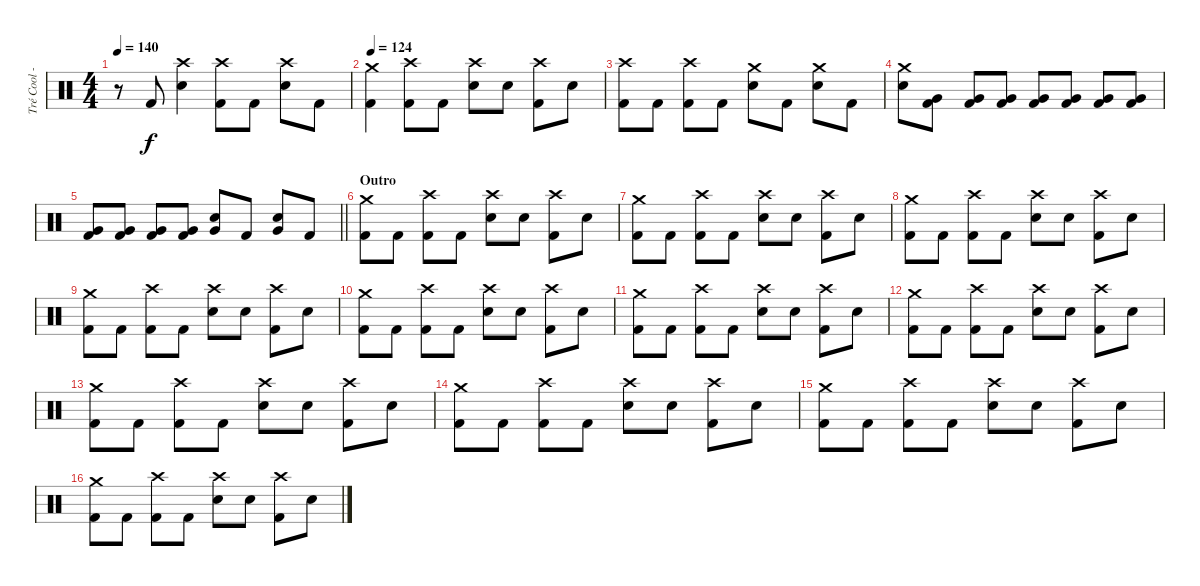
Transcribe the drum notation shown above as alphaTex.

\track ("Tré Cool - Drums" "Tré Cool -") {instrument percussion}
\staff {score}
\articulation defaults
\ts (4 4)
\tempo 140
\clef neutral
\ks c
r.8{dy f} "Kick (hit) 2".8 ("Crash high (hit)" "Electric Snare (hit)").4 ("Crash high (hit)" "Kick (hit) 2").8 "Kick (hit) 2".8 ("Crash high (hit)" "Electric Snare (hit)").8 "Kick (hit) 2".8 |
\tempo 124
("Crash medium (hit)" "Kick (hit) 2").4 ("Crash high (hit)" "Kick (hit) 2").8 "Kick (hit) 2".8 ("Crash high (hit)" "Electric Snare (hit)").8 "Electric Snare (hit)".8 ("Crash high (hit)" "Kick (hit) 2").8 "Electric Snare (hit)".8 |
("Crash high (hit)" "Kick (hit) 2").8 "Kick (hit) 2".8 ("Crash high (hit)" "Kick (hit) 2").8 "Kick (hit) 2".8 ("Crash medium (hit)" "Electric Snare (hit)").8 "Kick (hit) 2".8 ("Crash medium (hit)" "Electric Snare (hit)").8 "Kick (hit) 2".8 |
("Crash medium (hit)" "Electric Snare (hit)").8 ("Very Low Tom (hit)" "Kick (hit) 2").8 ("Very Low Tom (hit)" "Kick (hit) 2").8 ("Very Low Tom (hit)" "Kick (hit) 2").8 ("Very Low Tom (hit)" "Kick (hit) 2").8 ("Very Low Tom (hit)" "Kick (hit) 2").8 ("Very Low Tom (hit)" "Kick (hit) 2").8 ("Very Low Tom (hit)" "Kick (hit) 2").8 |
\barLineRight lightlight
("Very Low Tom (hit)" "Kick (hit) 2").8 ("Very Low Tom (hit)" "Kick (hit) 2").8 ("Very Low Tom (hit)" "Kick (hit) 2").8 ("Very Low Tom (hit)" "Kick (hit) 2").8 ("Electric Snare (hit)" "Very Low Tom (hit)").8 "Kick (hit) 2".8 ("Electric Snare (hit)" "Very Low Tom (hit)").8 "Kick (hit) 2".8 |
\section ("" "Outro")
("Crash medium (hit)" "Kick (hit) 2").8 "Kick (hit) 2".8 ("Crash high (hit)" "Kick (hit) 2").8 "Kick (hit) 2".8 ("Crash high (hit)" "Electric Snare (hit)").8 "Electric Snare (hit)".8 ("Crash high (hit)" "Kick (hit) 2").8 "Electric Snare (hit)".8 |
("Crash medium (hit)" "Kick (hit) 2").8 "Kick (hit) 2".8 ("Crash high (hit)" "Kick (hit) 2").8 "Kick (hit) 2".8 ("Crash high (hit)" "Electric Snare (hit)").8 "Electric Snare (hit)".8 ("Crash high (hit)" "Kick (hit) 2").8 "Electric Snare (hit)".8 |
("Crash medium (hit)" "Kick (hit) 2").8 "Kick (hit) 2".8 ("Crash high (hit)" "Kick (hit) 2").8 "Kick (hit) 2".8 ("Crash high (hit)" "Electric Snare (hit)").8 "Electric Snare (hit)".8 ("Crash high (hit)" "Kick (hit) 2").8 "Electric Snare (hit)".8 |
("Crash medium (hit)" "Kick (hit) 2").8 "Kick (hit) 2".8 ("Crash high (hit)" "Kick (hit) 2").8 "Kick (hit) 2".8 ("Crash high (hit)" "Electric Snare (hit)").8 "Electric Snare (hit)".8 ("Crash high (hit)" "Kick (hit) 2").8 "Electric Snare (hit)".8 |
("Crash medium (hit)" "Kick (hit) 2").8 "Kick (hit) 2".8 ("Crash high (hit)" "Kick (hit) 2").8 "Kick (hit) 2".8 ("Crash high (hit)" "Electric Snare (hit)").8 "Electric Snare (hit)".8 ("Crash high (hit)" "Kick (hit) 2").8 "Electric Snare (hit)".8 |
("Crash medium (hit)" "Kick (hit) 2").8 "Kick (hit) 2".8 ("Crash high (hit)" "Kick (hit) 2").8 "Kick (hit) 2".8 ("Crash high (hit)" "Electric Snare (hit)").8 "Electric Snare (hit)".8 ("Crash high (hit)" "Kick (hit) 2").8 "Electric Snare (hit)".8 |
("Crash medium (hit)" "Kick (hit) 2").8 "Kick (hit) 2".8 ("Crash high (hit)" "Kick (hit) 2").8 "Kick (hit) 2".8 ("Crash high (hit)" "Electric Snare (hit)").8 "Electric Snare (hit)".8 ("Crash high (hit)" "Kick (hit) 2").8 "Electric Snare (hit)".8 |
("Crash medium (hit)" "Kick (hit) 2").8 "Kick (hit) 2".8 ("Crash high (hit)" "Kick (hit) 2").8 "Kick (hit) 2".8 ("Crash high (hit)" "Electric Snare (hit)").8 "Electric Snare (hit)".8 ("Crash high (hit)" "Kick (hit) 2").8 "Electric Snare (hit)".8 |
("Crash medium (hit)" "Kick (hit) 2").8 "Kick (hit) 2".8 ("Crash high (hit)" "Kick (hit) 2").8 "Kick (hit) 2".8 ("Crash high (hit)" "Electric Snare (hit)").8 "Electric Snare (hit)".8 ("Crash high (hit)" "Kick (hit) 2").8 "Electric Snare (hit)".8 |
("Crash medium (hit)" "Kick (hit) 2").8 "Kick (hit) 2".8 ("Crash high (hit)" "Kick (hit) 2").8 "Kick (hit) 2".8 ("Crash high (hit)" "Electric Snare (hit)").8 "Electric Snare (hit)".8 ("Crash high (hit)" "Kick (hit) 2").8 "Electric Snare (hit)".8 |
("Crash medium (hit)" "Kick (hit) 2").8 "Kick (hit) 2".8 ("Crash high (hit)" "Kick (hit) 2").8 "Kick (hit) 2".8 ("Crash high (hit)" "Electric Snare (hit)").8 "Electric Snare (hit)".8 ("Crash high (hit)" "Kick (hit) 2").8 "Electric Snare (hit)".8
